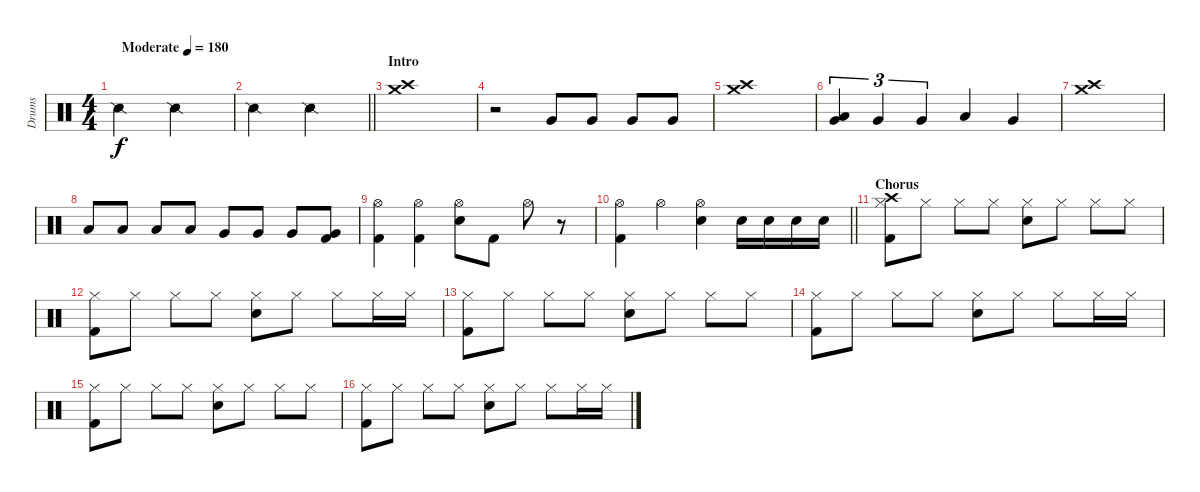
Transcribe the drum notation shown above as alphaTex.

\track ("Drums" "Drums") {instrument percussion}
\staff
\articulation defaults
\ts (4 4)
\tempo (180 "Moderate")
\clef neutral
\ks c "Snare (side stick) 2".2{dy f} "Snare (side stick) 2".2
|
\barLineRight lightlight "Snare (side stick) 2".2 "Snare (side stick) 2".2
|
\section ("" "Intro")
("Crash high (hit)" "Crash medium (hit)").1 |
r.2 "Very Low Tom (hit)".8 "Very Low Tom (hit)".8 "Very Low Tom (hit)".8 "Very Low Tom (hit)".8 |
("Crash high (hit)" "Crash medium (hit)").1 |
("Low Tom (hit)" "Very Low Tom (hit)").4{tu (3 2)} "Very Low Tom (hit)".4{tu (3 2)} "Very Low Tom (hit)".4{tu (3 2)} "Low Tom (hit)".4 "Very Low Tom (hit)".4 |
("Crash high (hit)" "Crash medium (hit)").1 |
"Low Tom (hit)".8 "Low Tom (hit)".8 "Low Tom (hit)".8 "Low Tom (hit)".8 "Very Low Tom (hit)".8 "Very Low Tom (hit)".8 "Very Low Tom (hit)".8 ("Very Low Tom (hit)" "Kick (hit) 2").8 |
("Hi-Hat (open)" "Kick (hit) 2").4 ("Hi-Hat (open)" "Kick (hit) 2").4 ("Hi-Hat (open)" "Electric Snare (hit)").8 "Kick (hit) 2".8 "Hi-Hat (open)".8 r.8 |
\barLineRight lightlight
("Hi-Hat (open)" "Kick (hit) 2").4 "Hi-Hat (open)".4 ("Hi-Hat (open)" "Electric Snare (hit)").4 "Electric Snare (hit)".16 "Electric Snare (hit)".16 "Electric Snare (hit)".16 "Electric Snare (hit)".16 |
\section ("" "Chorus")
("Crash high (hit)" "Hi-Hat (closed)" "Kick (hit) 2").8 "Hi-Hat (closed)".8 "Hi-Hat (closed)".8 "Hi-Hat (closed)".8 ("Hi-Hat (closed)" "Electric Snare (hit)").8 "Hi-Hat (closed)".8 "Hi-Hat (closed)".8 "Hi-Hat (closed)".8 |
("Hi-Hat (closed)" "Kick (hit) 2").8 "Hi-Hat (closed)".8 "Hi-Hat (closed)".8 "Hi-Hat (closed)".8 ("Hi-Hat (closed)" "Electric Snare (hit)").8 "Hi-Hat (closed)".8 "Hi-Hat (closed)".8 "Hi-Hat (closed)".16 "Hi-Hat (closed)".16 |
("Hi-Hat (closed)" "Kick (hit) 2").8 "Hi-Hat (closed)".8 "Hi-Hat (closed)".8 "Hi-Hat (closed)".8 ("Hi-Hat (closed)" "Electric Snare (hit)").8 "Hi-Hat (closed)".8 "Hi-Hat (closed)".8 "Hi-Hat (closed)".8 |
("Hi-Hat (closed)" "Kick (hit) 2").8 "Hi-Hat (closed)".8 "Hi-Hat (closed)".8 "Hi-Hat (closed)".8 ("Hi-Hat (closed)" "Electric Snare (hit)").8 "Hi-Hat (closed)".8 "Hi-Hat (closed)".8 "Hi-Hat (closed)".16 "Hi-Hat (closed)".16 |
("Hi-Hat (closed)" "Kick (hit) 2").8 "Hi-Hat (closed)".8 "Hi-Hat (closed)".8 "Hi-Hat (closed)".8 ("Hi-Hat (closed)" "Electric Snare (hit)").8 "Hi-Hat (closed)".8 "Hi-Hat (closed)".8 "Hi-Hat (closed)".8 |
("Hi-Hat (closed)" "Kick (hit) 2").8 "Hi-Hat (closed)".8 "Hi-Hat (closed)".8 "Hi-Hat (closed)".8 ("Hi-Hat (closed)" "Electric Snare (hit)").8 "Hi-Hat (closed)".8 "Hi-Hat (closed)".8 "Hi-Hat (closed)".16 "Hi-Hat (closed)".16
